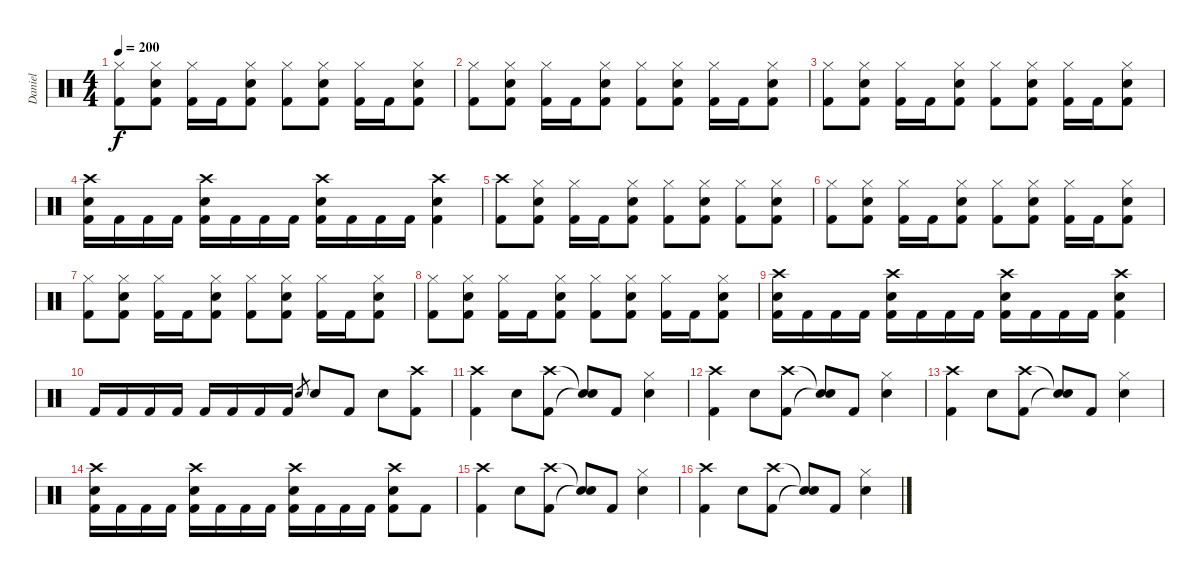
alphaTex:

\track ("Daniel" "Daniel") {instrument percussion}
\staff {score}
\articulation defaults
\ts (4 4)
\tempo 200
\clef neutral
\ks c
("Hi-Hat (closed)" "Kick (hit) 2").8{dy f} ("Hi-Hat (closed)" "Electric Snare (hit)" "Kick (hit) 2").8 ("Hi-Hat (closed)" "Kick (hit) 2").16 "Kick (hit) 2".16 ("Hi-Hat (closed)" "Electric Snare (hit)" "Kick (hit) 2").8 ("Hi-Hat (closed)" "Kick (hit) 2").8 ("Hi-Hat (closed)" "Electric Snare (hit)" "Kick (hit) 2").8 ("Hi-Hat (closed)" "Kick (hit) 2").16 "Kick (hit) 2".16 ("Hi-Hat (closed)" "Electric Snare (hit)" "Kick (hit) 2").8 |
("Hi-Hat (closed)" "Kick (hit) 2").8 ("Hi-Hat (closed)" "Electric Snare (hit)" "Kick (hit) 2").8 ("Hi-Hat (closed)" "Kick (hit) 2").16 "Kick (hit) 2".16 ("Hi-Hat (closed)" "Electric Snare (hit)" "Kick (hit) 2").8 ("Hi-Hat (closed)" "Kick (hit) 2").8 ("Hi-Hat (closed)" "Electric Snare (hit)" "Kick (hit) 2").8 ("Hi-Hat (closed)" "Kick (hit) 2").16 "Kick (hit) 2".16 ("Hi-Hat (closed)" "Electric Snare (hit)" "Kick (hit) 2").8 |
("Hi-Hat (closed)" "Kick (hit) 2").8 ("Hi-Hat (closed)" "Electric Snare (hit)" "Kick (hit) 2").8 ("Hi-Hat (closed)" "Kick (hit) 2").16 "Kick (hit) 2".16 ("Hi-Hat (closed)" "Electric Snare (hit)" "Kick (hit) 2").8 ("Hi-Hat (closed)" "Kick (hit) 2").8 ("Hi-Hat (closed)" "Electric Snare (hit)" "Kick (hit) 2").8 ("Hi-Hat (closed)" "Kick (hit) 2").16 "Kick (hit) 2".16 ("Hi-Hat (closed)" "Electric Snare (hit)" "Kick (hit) 2").8 |
("Crash high (hit)" "Electric Snare (hit)" "Kick (hit) 2").16 "Kick (hit) 2".16 "Kick (hit) 2".16 "Kick (hit) 2".16 ("Crash high (hit)" "Electric Snare (hit)" "Kick (hit) 2").16 "Kick (hit) 2".16 "Kick (hit) 2".16 "Kick (hit) 2".16 ("Crash high (hit)" "Electric Snare (hit)" "Kick (hit) 2").16 "Kick (hit) 2".16 "Kick (hit) 2".16 "Kick (hit) 2".16 ("Crash high (hit)" "Electric Snare (hit)" "Kick (hit) 2").4 |
("Crash high (hit)" "Kick (hit) 2").8 ("Hi-Hat (closed)" "Electric Snare (hit)" "Kick (hit) 2").8 ("Hi-Hat (closed)" "Kick (hit) 2").16 "Kick (hit) 2".16 ("Hi-Hat (closed)" "Electric Snare (hit)" "Kick (hit) 2").8 ("Hi-Hat (closed)" "Kick (hit) 2").8 ("Hi-Hat (closed)" "Electric Snare (hit)" "Kick (hit) 2").8 ("Hi-Hat (closed)" "Kick (hit) 2").8 ("Hi-Hat (closed)" "Electric Snare (hit)" "Kick (hit) 2").8 |
("Hi-Hat (closed)" "Kick (hit) 2").8 ("Hi-Hat (closed)" "Electric Snare (hit)" "Kick (hit) 2").8 ("Hi-Hat (closed)" "Kick (hit) 2").16 "Kick (hit) 2".16 ("Hi-Hat (closed)" "Electric Snare (hit)" "Kick (hit) 2").8 ("Hi-Hat (closed)" "Kick (hit) 2").8 ("Hi-Hat (closed)" "Electric Snare (hit)" "Kick (hit) 2").8 ("Hi-Hat (closed)" "Kick (hit) 2").16 "Kick (hit) 2".16 ("Hi-Hat (closed)" "Electric Snare (hit)" "Kick (hit) 2").8 |
("Hi-Hat (closed)" "Kick (hit) 2").8 ("Hi-Hat (closed)" "Electric Snare (hit)" "Kick (hit) 2").8 ("Hi-Hat (closed)" "Kick (hit) 2").16 "Kick (hit) 2".16 ("Hi-Hat (closed)" "Electric Snare (hit)" "Kick (hit) 2").8 ("Hi-Hat (closed)" "Kick (hit) 2").8 ("Hi-Hat (closed)" "Electric Snare (hit)" "Kick (hit) 2").8 ("Hi-Hat (closed)" "Kick (hit) 2").16 "Kick (hit) 2".16 ("Hi-Hat (closed)" "Electric Snare (hit)" "Kick (hit) 2").8 |
("Hi-Hat (closed)" "Kick (hit) 2").8 ("Hi-Hat (closed)" "Electric Snare (hit)" "Kick (hit) 2").8 ("Hi-Hat (closed)" "Kick (hit) 2").16 "Kick (hit) 2".16 ("Hi-Hat (closed)" "Electric Snare (hit)" "Kick (hit) 2").8 ("Hi-Hat (closed)" "Kick (hit) 2").8 ("Hi-Hat (closed)" "Electric Snare (hit)" "Kick (hit) 2").8 ("Hi-Hat (closed)" "Kick (hit) 2").16 "Kick (hit) 2".16 ("Hi-Hat (closed)" "Electric Snare (hit)" "Kick (hit) 2").8 |
("Crash high (hit)" "Electric Snare (hit)" "Kick (hit) 2").16 "Kick (hit) 2".16 "Kick (hit) 2".16 "Kick (hit) 2".16 ("Crash high (hit)" "Electric Snare (hit)" "Kick (hit) 2").16 "Kick (hit) 2".16 "Kick (hit) 2".16 "Kick (hit) 2".16 ("Crash high (hit)" "Electric Snare (hit)" "Kick (hit) 2").16 "Kick (hit) 2".16 "Kick (hit) 2".16 "Kick (hit) 2".16 ("Crash high (hit)" "Electric Snare (hit)" "Kick (hit) 2").4 |
"Kick (hit) 2".16 "Kick (hit) 2".16 "Kick (hit) 2".16 "Kick (hit) 2".16 "Kick (hit) 2".16 "Kick (hit) 2".16 "Kick (hit) 2".16 "Kick (hit) 2".16 "Electric Snare (hit)".8{gr} "Electric Snare (hit)".8 "Kick (hit) 2".8 "Electric Snare (hit)".8 ("Crash high (hit)" "Kick (hit) 2").8 |
("Crash high (hit)" "Kick (hit) 2").4 "Electric Snare (hit)".8 ("Crash high (hit)" "Kick (hit) 2").8 ("Snare (hit)"{t} "Snare (hit)"{t}).8 "Kick (hit) 2".8 ("Hi-Hat (closed)" "Electric Snare (hit)").4 |
("Crash high (hit)" "Kick (hit) 2").4 "Electric Snare (hit)".8 ("Crash high (hit)" "Kick (hit) 2").8 ("Snare (hit)"{t} "Snare (hit)"{t}).8 "Kick (hit) 2".8 ("Hi-Hat (closed)" "Electric Snare (hit)").4 |
("Crash high (hit)" "Kick (hit) 2").4 "Electric Snare (hit)".8 ("Crash high (hit)" "Kick (hit) 2").8 ("Snare (hit)"{t} "Snare (hit)"{t}).8 "Kick (hit) 2".8 ("Hi-Hat (closed)" "Electric Snare (hit)").4 |
("Crash high (hit)" "Electric Snare (hit)" "Kick (hit) 2").16 "Kick (hit) 2".16 "Kick (hit) 2".16 "Kick (hit) 2".16 ("Crash high (hit)" "Electric Snare (hit)" "Kick (hit) 2").16 "Kick (hit) 2".16 "Kick (hit) 2".16 "Kick (hit) 2".16 ("Crash high (hit)" "Electric Snare (hit)" "Kick (hit) 2").16 "Kick (hit) 2".16 "Kick (hit) 2".16 "Kick (hit) 2".16 ("Crash high (hit)" "Electric Snare (hit)" "Kick (hit) 2").8 "Kick (hit) 2".8 |
("Crash high (hit)" "Kick (hit) 2").4 "Electric Snare (hit)".8 ("Crash high (hit)" "Kick (hit) 2").8 ("Snare (hit)"{t} "Snare (hit)"{t}).8 "Kick (hit) 2".8 ("Hi-Hat (closed)" "Electric Snare (hit)").4 |
("Crash high (hit)" "Kick (hit) 2").4 "Electric Snare (hit)".8 ("Crash high (hit)" "Kick (hit) 2").8 ("Snare (hit)"{t} "Snare (hit)"{t}).8 "Kick (hit) 2".8 ("Hi-Hat (closed)" "Electric Snare (hit)").4
